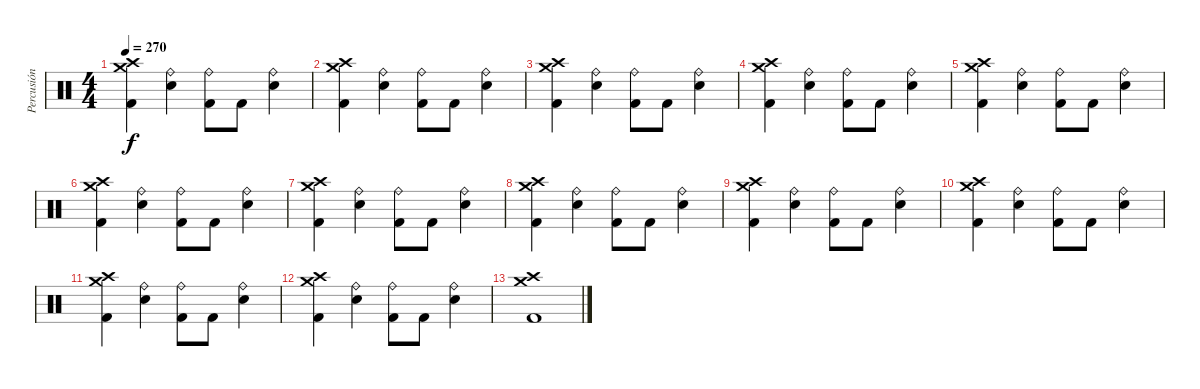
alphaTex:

\track ("Percusión" "Percusión") {instrument percussion}
\staff {score}
\articulation defaults
\ts (4 4)
\tempo 270
\clef neutral
\ks c
("Crash high (hit)" "Crash medium (hit)" "Kick (hit) 2").4{dy f} ("Ride (bell)" "Electric Snare (hit)").4 ("Ride (bell)" "Kick (hit) 2").8 "Kick (hit) 2".8 ("Ride (bell)" "Electric Snare (hit)").4 |
("Crash high (hit)" "Crash medium (hit)" "Kick (hit) 2").4 ("Ride (bell)" "Electric Snare (hit)").4 ("Ride (bell)" "Kick (hit) 2").8 "Kick (hit) 2".8 ("Ride (bell)" "Electric Snare (hit)").4 |
("Crash high (hit)" "Crash medium (hit)" "Kick (hit) 2").4 ("Ride (bell)" "Electric Snare (hit)").4 ("Ride (bell)" "Kick (hit) 2").8 "Kick (hit) 2".8 ("Ride (bell)" "Electric Snare (hit)").4 |
("Crash high (hit)" "Crash medium (hit)" "Kick (hit) 2").4 ("Ride (bell)" "Electric Snare (hit)").4 ("Ride (bell)" "Kick (hit) 2").8 "Kick (hit) 2".8 ("Ride (bell)" "Electric Snare (hit)").4 |
("Crash high (hit)" "Crash medium (hit)" "Kick (hit) 2").4 ("Ride (bell)" "Electric Snare (hit)").4 ("Ride (bell)" "Kick (hit) 2").8 "Kick (hit) 2".8 ("Ride (bell)" "Electric Snare (hit)").4 |
("Crash high (hit)" "Crash medium (hit)" "Kick (hit) 2").4 ("Ride (bell)" "Electric Snare (hit)").4 ("Ride (bell)" "Kick (hit) 2").8 "Kick (hit) 2".8 ("Ride (bell)" "Electric Snare (hit)").4 |
("Crash high (hit)" "Crash medium (hit)" "Kick (hit) 2").4 ("Ride (bell)" "Electric Snare (hit)").4 ("Ride (bell)" "Kick (hit) 2").8 "Kick (hit) 2".8 ("Ride (bell)" "Electric Snare (hit)").4 |
("Crash high (hit)" "Crash medium (hit)" "Kick (hit) 2").4 ("Ride (bell)" "Electric Snare (hit)").4 ("Ride (bell)" "Kick (hit) 2").8 "Kick (hit) 2".8 ("Ride (bell)" "Electric Snare (hit)").4 |
("Crash high (hit)" "Crash medium (hit)" "Kick (hit) 2").4 ("Ride (bell)" "Electric Snare (hit)").4 ("Ride (bell)" "Kick (hit) 2").8 "Kick (hit) 2".8 ("Ride (bell)" "Electric Snare (hit)").4 |
("Crash high (hit)" "Crash medium (hit)" "Kick (hit) 2").4 ("Ride (bell)" "Electric Snare (hit)").4 ("Ride (bell)" "Kick (hit) 2").8 "Kick (hit) 2".8 ("Ride (bell)" "Electric Snare (hit)").4 |
("Crash high (hit)" "Crash medium (hit)" "Kick (hit) 2").4 ("Ride (bell)" "Electric Snare (hit)").4 ("Ride (bell)" "Kick (hit) 2").8 "Kick (hit) 2".8 ("Ride (bell)" "Electric Snare (hit)").4 |
("Crash high (hit)" "Crash medium (hit)" "Kick (hit) 2").4 ("Ride (bell)" "Electric Snare (hit)").4 ("Ride (bell)" "Kick (hit) 2").8 "Kick (hit) 2".8 ("Ride (bell)" "Electric Snare (hit)").4 |
("Crash high (hit)" "Crash medium (hit)" "Kick (hit) 2").1
